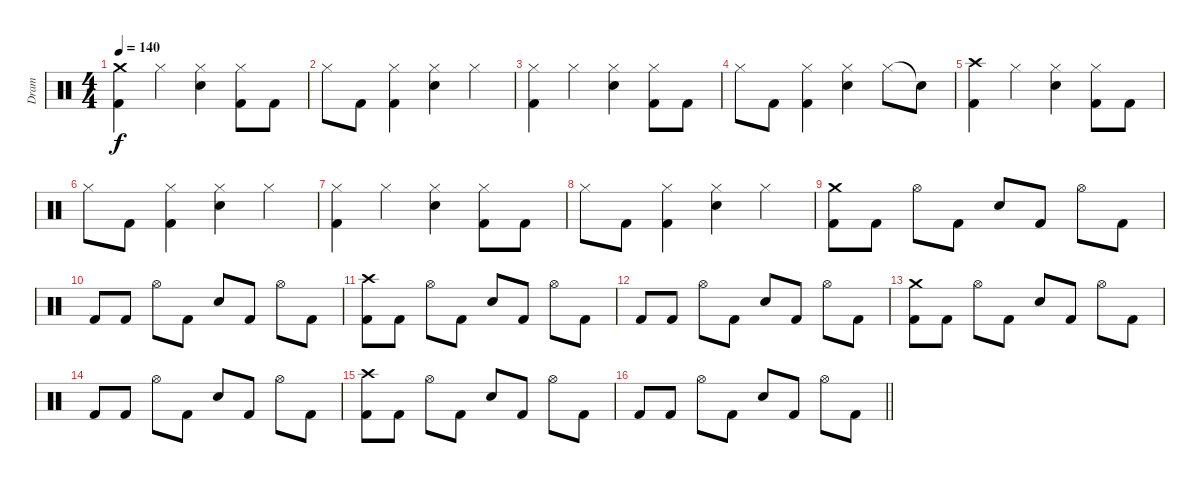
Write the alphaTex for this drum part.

\track ("Dram" "Dram") {instrument percussion}
\staff {score}
\articulation defaults
\ts (4 4)
\tempo 140
\clef neutral
\ks c
("Kick (hit) 2" "Crash medium (hit)").4{dy f} "Hi-Hat (closed)".4 ("Snare (hit) 2" "Hi-Hat (closed)").4 ("Kick (hit) 2" "Hi-Hat (closed)").8 "Kick (hit) 2".8 |
"Hi-Hat (closed)".8 "Kick (hit) 2".8 ("Kick (hit) 2" "Hi-Hat (closed)").4 ("Snare (hit) 2" "Hi-Hat (closed)").4 "Hi-Hat (closed)".4 |
("Hi-Hat (closed)" "Kick (hit) 2").4 "Hi-Hat (closed)".4 ("Snare (hit) 2" "Hi-Hat (closed)").4 ("Kick (hit) 2" "Hi-Hat (closed)").8 "Kick (hit) 2".8 |
"Hi-Hat (closed)".8 "Kick (hit) 2".8 ("Kick (hit) 2" "Hi-Hat (closed)").4 ("Snare (hit) 2" "Hi-Hat (closed)").4 "Hi-Hat (closed)".8 "Snare (hit)"{t}.8 |
("Kick (hit) 2" "Crash high (hit)").4 "Hi-Hat (closed)".4 ("Snare (hit) 2" "Hi-Hat (closed)").4 ("Kick (hit) 2" "Hi-Hat (closed)").8 "Kick (hit) 2".8 |
"Hi-Hat (closed)".8 "Kick (hit) 2".8 ("Kick (hit) 2" "Hi-Hat (closed)").4 ("Snare (hit) 2" "Hi-Hat (closed)").4 "Hi-Hat (closed)".4 |
("Hi-Hat (closed)" "Kick (hit) 2").4 "Hi-Hat (closed)".4 ("Snare (hit) 2" "Hi-Hat (closed)").4 ("Kick (hit) 2" "Hi-Hat (closed)").8 "Kick (hit) 2".8 |
"Hi-Hat (closed)".8 "Kick (hit) 2".8 ("Kick (hit) 2" "Hi-Hat (closed)").4 ("Snare (hit) 2" "Hi-Hat (closed)").4 "Hi-Hat (closed)".4 |
("Crash medium (hit)" "Kick (hit) 2").8 "Kick (hit) 2".8 "Hi-Hat (open)".8 "Kick (hit) 2".8 "Snare (hit) 2".8 "Kick (hit) 2".8 "Hi-Hat (open)".8 "Kick (hit) 2".8 |
"Kick (hit) 2".8 "Kick (hit) 2".8 "Hi-Hat (open)".8 "Kick (hit) 2".8 "Snare (hit) 2".8 "Kick (hit) 2".8 "Hi-Hat (open)".8 "Kick (hit) 2".8 |
("Crash high (hit)" "Kick (hit) 2").8 "Kick (hit) 2".8 "Hi-Hat (open)".8 "Kick (hit) 2".8 "Snare (hit) 2".8 "Kick (hit) 2".8 "Hi-Hat (open)".8 "Kick (hit) 2".8 |
"Kick (hit) 2".8 "Kick (hit) 2".8 "Hi-Hat (open)".8 "Kick (hit) 2".8 "Snare (hit) 2".8 "Kick (hit) 2".8 "Hi-Hat (open)".8 "Kick (hit) 2".8 |
("Crash medium (hit)" "Kick (hit) 2").8 "Kick (hit) 2".8 "Hi-Hat (open)".8 "Kick (hit) 2".8 "Snare (hit) 2".8 "Kick (hit) 2".8 "Hi-Hat (open)".8 "Kick (hit) 2".8 |
"Kick (hit) 2".8 "Kick (hit) 2".8 "Hi-Hat (open)".8 "Kick (hit) 2".8 "Snare (hit) 2".8 "Kick (hit) 2".8 "Hi-Hat (open)".8 "Kick (hit) 2".8 |
("Crash high (hit)" "Kick (hit) 2").8 "Kick (hit) 2".8 "Hi-Hat (open)".8 "Kick (hit) 2".8 "Snare (hit) 2".8 "Kick (hit) 2".8 "Hi-Hat (open)".8 "Kick (hit) 2".8 |
\barLineRight lightlight "Kick (hit) 2".8 "Kick (hit) 2".8 "Hi-Hat (open)".8 "Kick (hit) 2".8 "Snare (hit) 2".8 "Kick (hit) 2".8 "Hi-Hat (open)".8 "Kick (hit) 2".8
